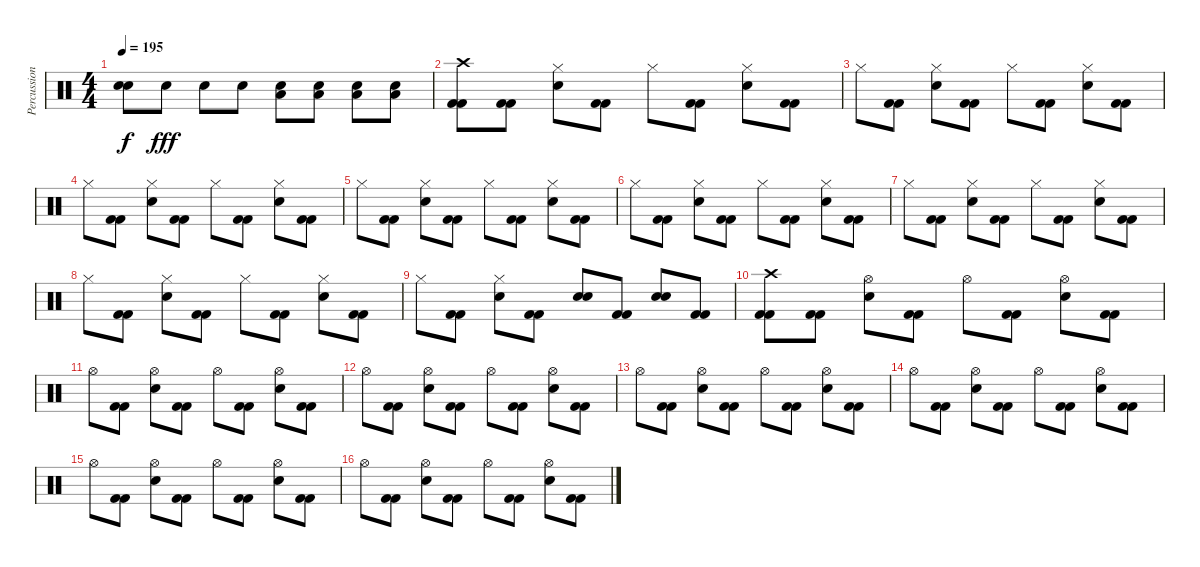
\track ("Percussions" "Percussion") {instrument percussion}
\staff {score}
\articulation defaults
\ts (4 4)
\tempo 195
\clef neutral
\ks c
("Snare (hit)"{t} "Snare (hit)"{t}).8{dy f} "Electric Snare (hit)".8{dy fff} "Electric Snare (hit)".8 "Electric Snare (hit)".8 ("Low Floor Tom (hit)" "Electric Snare (hit)").8 ("Low Floor Tom (hit)" "Electric Snare (hit)").8 ("Low Floor Tom (hit)" "Electric Snare (hit)").8 ("Low Floor Tom (hit)" "Electric Snare (hit)").8 |
("Crash high (hit)" "Kick (hit) 2" "Kick (hit) 2").8 ("Kick (hit) 2" "Kick (hit) 2").8 ("Hi-Hat (closed)" "Electric Snare (hit)").8 ("Kick (hit) 2" "Kick (hit) 2").8 "Hi-Hat (closed)".8 ("Kick (hit) 2" "Kick (hit) 2").8 ("Hi-Hat (closed)" "Electric Snare (hit)").8 ("Kick (hit) 2" "Kick (hit) 2").8 |
"Hi-Hat (closed)".8 ("Kick (hit) 2" "Kick (hit) 2").8 ("Hi-Hat (closed)" "Electric Snare (hit)").8 ("Kick (hit) 2" "Kick (hit) 2").8 "Hi-Hat (closed)".8 ("Kick (hit) 2" "Kick (hit) 2").8 ("Hi-Hat (closed)" "Electric Snare (hit)").8 ("Kick (hit) 2" "Kick (hit) 2").8 |
"Hi-Hat (closed)".8 ("Kick (hit) 2" "Kick (hit) 2").8 ("Hi-Hat (closed)" "Electric Snare (hit)").8 ("Kick (hit) 2" "Kick (hit) 2").8 "Hi-Hat (closed)".8 ("Kick (hit) 2" "Kick (hit) 2").8 ("Hi-Hat (closed)" "Electric Snare (hit)").8 ("Kick (hit) 2" "Kick (hit) 2").8 |
"Hi-Hat (closed)".8 ("Kick (hit) 2" "Kick (hit) 2").8 ("Hi-Hat (closed)" "Electric Snare (hit)").8 ("Kick (hit) 2" "Kick (hit) 2").8 "Hi-Hat (closed)".8 ("Kick (hit) 2" "Kick (hit) 2").8 ("Hi-Hat (closed)" "Electric Snare (hit)").8 ("Kick (hit) 2" "Kick (hit) 2").8 |
"Hi-Hat (closed)".8 ("Kick (hit) 2" "Kick (hit) 2").8 ("Hi-Hat (closed)" "Electric Snare (hit)").8 ("Kick (hit) 2" "Kick (hit) 2").8 "Hi-Hat (closed)".8 ("Kick (hit) 2" "Kick (hit) 2").8 ("Hi-Hat (closed)" "Electric Snare (hit)").8 ("Kick (hit) 2" "Kick (hit) 2").8 |
"Hi-Hat (closed)".8 ("Kick (hit) 2" "Kick (hit) 2").8 ("Hi-Hat (closed)" "Electric Snare (hit)").8 ("Kick (hit) 2" "Kick (hit) 2").8 "Hi-Hat (closed)".8 ("Kick (hit) 2" "Kick (hit) 2").8 ("Hi-Hat (closed)" "Electric Snare (hit)").8 ("Kick (hit) 2" "Kick (hit) 2").8 |
"Hi-Hat (closed)".8 ("Kick (hit) 2" "Kick (hit) 2").8 ("Hi-Hat (closed)" "Electric Snare (hit)").8 ("Kick (hit) 2" "Kick (hit) 2").8 "Hi-Hat (closed)".8 ("Kick (hit) 2" "Kick (hit) 2").8 ("Hi-Hat (closed)" "Electric Snare (hit)").8 ("Kick (hit) 2" "Kick (hit) 2").8 |
"Hi-Hat (closed)".8 ("Kick (hit) 2" "Kick (hit) 2").8 ("Hi-Hat (closed)" "Electric Snare (hit)").8 ("Kick (hit) 2" "Kick (hit) 2").8 ("Electric Snare (hit)" "Electric Snare (hit)").8 ("Kick (hit) 2" "Kick (hit) 2").8 ("Electric Snare (hit)" "Electric Snare (hit)").8 ("Kick (hit) 2" "Kick (hit) 2").8 |
("Crash high (hit)" "Kick (hit) 2" "Kick (hit) 2").8 ("Kick (hit) 2" "Kick (hit) 2").8 ("Hi-Hat (open)" "Electric Snare (hit)").8 ("Kick (hit) 2" "Kick (hit) 2").8 "Hi-Hat (open)".8 ("Kick (hit) 2" "Kick (hit) 2").8 ("Hi-Hat (open)" "Electric Snare (hit)").8 ("Kick (hit) 2" "Kick (hit) 2").8 |
"Hi-Hat (open)".8 ("Kick (hit) 2" "Kick (hit) 2").8 ("Hi-Hat (open)" "Electric Snare (hit)").8 ("Kick (hit) 2" "Kick (hit) 2").8 "Hi-Hat (open)".8 ("Kick (hit) 2" "Kick (hit) 2").8 ("Hi-Hat (open)" "Electric Snare (hit)").8 ("Kick (hit) 2" "Kick (hit) 2").8 |
"Hi-Hat (open)".8 ("Kick (hit) 2" "Kick (hit) 2").8 ("Hi-Hat (open)" "Electric Snare (hit)").8 ("Kick (hit) 2" "Kick (hit) 2").8 "Hi-Hat (open)".8 ("Kick (hit) 2" "Kick (hit) 2").8 ("Hi-Hat (open)" "Electric Snare (hit)").8 ("Kick (hit) 2" "Kick (hit) 2").8 |
"Hi-Hat (open)".8 ("Kick (hit) 2" "Kick (hit) 2").8 ("Hi-Hat (open)" "Electric Snare (hit)").8 ("Kick (hit) 2" "Kick (hit) 2").8 "Hi-Hat (open)".8 ("Kick (hit) 2" "Kick (hit) 2").8 ("Hi-Hat (open)" "Electric Snare (hit)").8 ("Kick (hit) 2" "Kick (hit) 2").8 |
"Hi-Hat (open)".8 ("Kick (hit) 2" "Kick (hit) 2").8 ("Hi-Hat (open)" "Electric Snare (hit)").8 ("Kick (hit) 2" "Kick (hit) 2").8 "Hi-Hat (open)".8 ("Kick (hit) 2" "Kick (hit) 2").8 ("Hi-Hat (open)" "Electric Snare (hit)").8 ("Kick (hit) 2" "Kick (hit) 2").8 |
"Hi-Hat (open)".8 ("Kick (hit) 2" "Kick (hit) 2").8 ("Hi-Hat (open)" "Electric Snare (hit)").8 ("Kick (hit) 2" "Kick (hit) 2").8 "Hi-Hat (open)".8 ("Kick (hit) 2" "Kick (hit) 2").8 ("Hi-Hat (open)" "Electric Snare (hit)").8 ("Kick (hit) 2" "Kick (hit) 2").8 |
"Hi-Hat (open)".8 ("Kick (hit) 2" "Kick (hit) 2").8 ("Hi-Hat (open)" "Electric Snare (hit)").8 ("Kick (hit) 2" "Kick (hit) 2").8 "Hi-Hat (open)".8 ("Kick (hit) 2" "Kick (hit) 2").8 ("Hi-Hat (open)" "Electric Snare (hit)").8 ("Kick (hit) 2" "Kick (hit) 2").8
